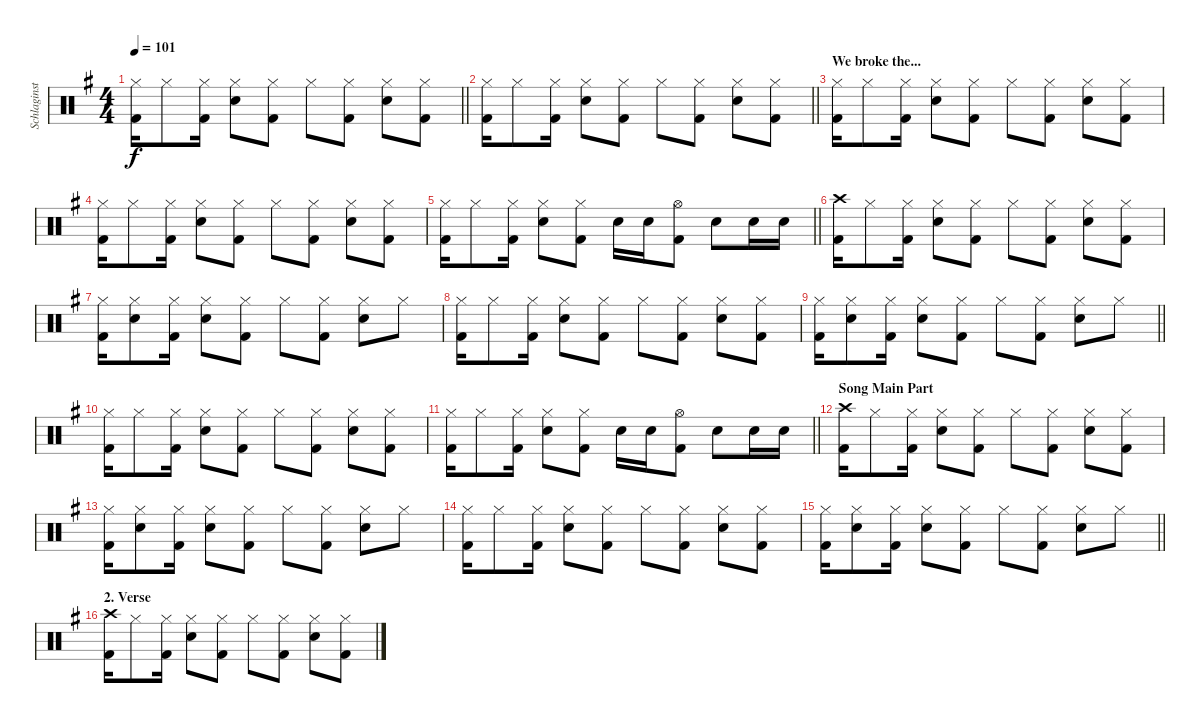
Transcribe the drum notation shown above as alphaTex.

\track ("Schlaginstrumente - Auswahl" "Schlaginst") {instrument percussion}
\staff {score}
\articulation defaults
\ts (4 4)
\tempo 101
\clef neutral
\barLineRight lightlight
\ks g
("Hi-Hat (closed)" "Kick (hit) 2").16{dy f} "Hi-Hat (closed)".8 ("Hi-Hat (closed)" "Kick (hit) 2").16 ("Hi-Hat (closed)" "Electric Snare (hit)").8 ("Hi-Hat (closed)" "Kick (hit) 2").8 "Hi-Hat (closed)".8 ("Hi-Hat (closed)" "Kick (hit) 2").8 ("Hi-Hat (closed)" "Electric Snare (hit)").8 ("Hi-Hat (closed)" "Kick (hit) 2").8 |
\barLineRight lightlight
("Hi-Hat (closed)" "Kick (hit) 2").16 "Hi-Hat (closed)".8 ("Hi-Hat (closed)" "Kick (hit) 2").16 ("Hi-Hat (closed)" "Electric Snare (hit)").8 ("Hi-Hat (closed)" "Kick (hit) 2").8 "Hi-Hat (closed)".8 ("Hi-Hat (closed)" "Kick (hit) 2").8 ("Hi-Hat (closed)" "Electric Snare (hit)").8 ("Hi-Hat (closed)" "Kick (hit) 2").8 |
\section ("" "We broke the...")
("Hi-Hat (closed)" "Kick (hit) 2").16 "Hi-Hat (closed)".8 ("Hi-Hat (closed)" "Kick (hit) 2").16 ("Hi-Hat (closed)" "Electric Snare (hit)").8 ("Hi-Hat (closed)" "Kick (hit) 2").8 "Hi-Hat (closed)".8 ("Hi-Hat (closed)" "Kick (hit) 2").8 ("Hi-Hat (closed)" "Electric Snare (hit)").8 ("Hi-Hat (closed)" "Kick (hit) 2").8 |
("Hi-Hat (closed)" "Kick (hit) 2").16 "Hi-Hat (closed)".8 ("Hi-Hat (closed)" "Kick (hit) 2").16 ("Hi-Hat (closed)" "Electric Snare (hit)").8 ("Hi-Hat (closed)" "Kick (hit) 2").8 "Hi-Hat (closed)".8 ("Hi-Hat (closed)" "Kick (hit) 2").8 ("Hi-Hat (closed)" "Electric Snare (hit)").8 ("Hi-Hat (closed)" "Kick (hit) 2").8 |
\barLineRight lightlight
("Hi-Hat (closed)" "Kick (hit) 2").16 "Hi-Hat (closed)".8 ("Hi-Hat (closed)" "Kick (hit) 2").16 ("Hi-Hat (closed)" "Electric Snare (hit)").8 ("Hi-Hat (closed)" "Kick (hit) 2").8 "Electric Snare (hit)".16 "Electric Snare (hit)".16 ("Hi-Hat (open)" "Kick (hit) 2").8 "Electric Snare (hit)".8 "Electric Snare (hit)".16 "Electric Snare (hit)".16 |
("Crash high (hit)" "Kick (hit) 2").16 "Hi-Hat (closed)".8 ("Hi-Hat (closed)" "Kick (hit) 2").16 ("Hi-Hat (closed)" "Electric Snare (hit)").8 ("Hi-Hat (closed)" "Kick (hit) 2").8 "Hi-Hat (closed)".8 ("Hi-Hat (closed)" "Kick (hit) 2").8 ("Hi-Hat (closed)" "Electric Snare (hit)").8 ("Hi-Hat (closed)" "Kick (hit) 2").8 |
("Hi-Hat (closed)" "Kick (hit) 2").16 ("Hi-Hat (closed)" "Electric Snare (hit)").8 ("Hi-Hat (closed)" "Kick (hit) 2").16 ("Hi-Hat (closed)" "Electric Snare (hit)").8 ("Hi-Hat (closed)" "Kick (hit) 2").8 "Hi-Hat (closed)".8 ("Hi-Hat (closed)" "Kick (hit) 2").8 ("Hi-Hat (closed)" "Electric Snare (hit)").8 "Hi-Hat (closed)".8 |
("Hi-Hat (closed)" "Kick (hit) 2").16 "Hi-Hat (closed)".8 ("Hi-Hat (closed)" "Kick (hit) 2").16 ("Hi-Hat (closed)" "Electric Snare (hit)").8 ("Hi-Hat (closed)" "Kick (hit) 2").8 "Hi-Hat (closed)".8 ("Hi-Hat (closed)" "Kick (hit) 2").8 ("Hi-Hat (closed)" "Electric Snare (hit)").8 ("Hi-Hat (closed)" "Kick (hit) 2").8 |
\barLineRight lightlight
("Hi-Hat (closed)" "Kick (hit) 2").16 ("Hi-Hat (closed)" "Electric Snare (hit)").8 ("Hi-Hat (closed)" "Kick (hit) 2").16 ("Hi-Hat (closed)" "Electric Snare (hit)").8 ("Hi-Hat (closed)" "Kick (hit) 2").8 "Hi-Hat (closed)".8 ("Hi-Hat (closed)" "Kick (hit) 2").8 ("Hi-Hat (closed)" "Electric Snare (hit)").8 "Hi-Hat (closed)".8 |
("Hi-Hat (closed)" "Kick (hit) 2").16 "Hi-Hat (closed)".8 ("Hi-Hat (closed)" "Kick (hit) 2").16 ("Hi-Hat (closed)" "Electric Snare (hit)").8 ("Hi-Hat (closed)" "Kick (hit) 2").8 "Hi-Hat (closed)".8 ("Hi-Hat (closed)" "Kick (hit) 2").8 ("Hi-Hat (closed)" "Electric Snare (hit)").8 ("Hi-Hat (closed)" "Kick (hit) 2").8 |
\barLineRight lightlight
("Hi-Hat (closed)" "Kick (hit) 2").16 "Hi-Hat (closed)".8 ("Hi-Hat (closed)" "Kick (hit) 2").16 ("Hi-Hat (closed)" "Electric Snare (hit)").8 ("Hi-Hat (closed)" "Kick (hit) 2").8 "Electric Snare (hit)".16 "Electric Snare (hit)".16 ("Hi-Hat (open)" "Kick (hit) 2").8 "Electric Snare (hit)".8 "Electric Snare (hit)".16 "Electric Snare (hit)".16 |
\section ("" "Song Main Part")
("Crash high (hit)" "Kick (hit) 2").16 "Hi-Hat (closed)".8 ("Hi-Hat (closed)" "Kick (hit) 2").16 ("Hi-Hat (closed)" "Electric Snare (hit)").8 ("Hi-Hat (closed)" "Kick (hit) 2").8 "Hi-Hat (closed)".8 ("Hi-Hat (closed)" "Kick (hit) 2").8 ("Hi-Hat (closed)" "Electric Snare (hit)").8 ("Hi-Hat (closed)" "Kick (hit) 2").8 |
("Hi-Hat (closed)" "Kick (hit) 2").16 ("Hi-Hat (closed)" "Electric Snare (hit)").8 ("Hi-Hat (closed)" "Kick (hit) 2").16 ("Hi-Hat (closed)" "Electric Snare (hit)").8 ("Hi-Hat (closed)" "Kick (hit) 2").8 "Hi-Hat (closed)".8 ("Hi-Hat (closed)" "Kick (hit) 2").8 ("Hi-Hat (closed)" "Electric Snare (hit)").8 "Hi-Hat (closed)".8 |
("Hi-Hat (closed)" "Kick (hit) 2").16 "Hi-Hat (closed)".8 ("Hi-Hat (closed)" "Kick (hit) 2").16 ("Hi-Hat (closed)" "Electric Snare (hit)").8 ("Hi-Hat (closed)" "Kick (hit) 2").8 "Hi-Hat (closed)".8 ("Hi-Hat (closed)" "Kick (hit) 2").8 ("Hi-Hat (closed)" "Electric Snare (hit)").8 ("Hi-Hat (closed)" "Kick (hit) 2").8 |
\barLineRight lightlight
("Hi-Hat (closed)" "Kick (hit) 2").16 ("Hi-Hat (closed)" "Electric Snare (hit)").8 ("Hi-Hat (closed)" "Kick (hit) 2").16 ("Hi-Hat (closed)" "Electric Snare (hit)").8 ("Hi-Hat (closed)" "Kick (hit) 2").8 "Hi-Hat (closed)".8 ("Hi-Hat (closed)" "Kick (hit) 2").8 ("Hi-Hat (closed)" "Electric Snare (hit)").8 "Hi-Hat (closed)".8 |
\section ("" "2. Verse")
("Crash high (hit)" "Kick (hit) 2").16 "Hi-Hat (closed)".8 ("Hi-Hat (closed)" "Kick (hit) 2").16 ("Hi-Hat (closed)" "Electric Snare (hit)").8 ("Hi-Hat (closed)" "Kick (hit) 2").8 "Hi-Hat (closed)".8 ("Hi-Hat (closed)" "Kick (hit) 2").8 ("Hi-Hat (closed)" "Electric Snare (hit)").8 ("Hi-Hat (closed)" "Kick (hit) 2").8
